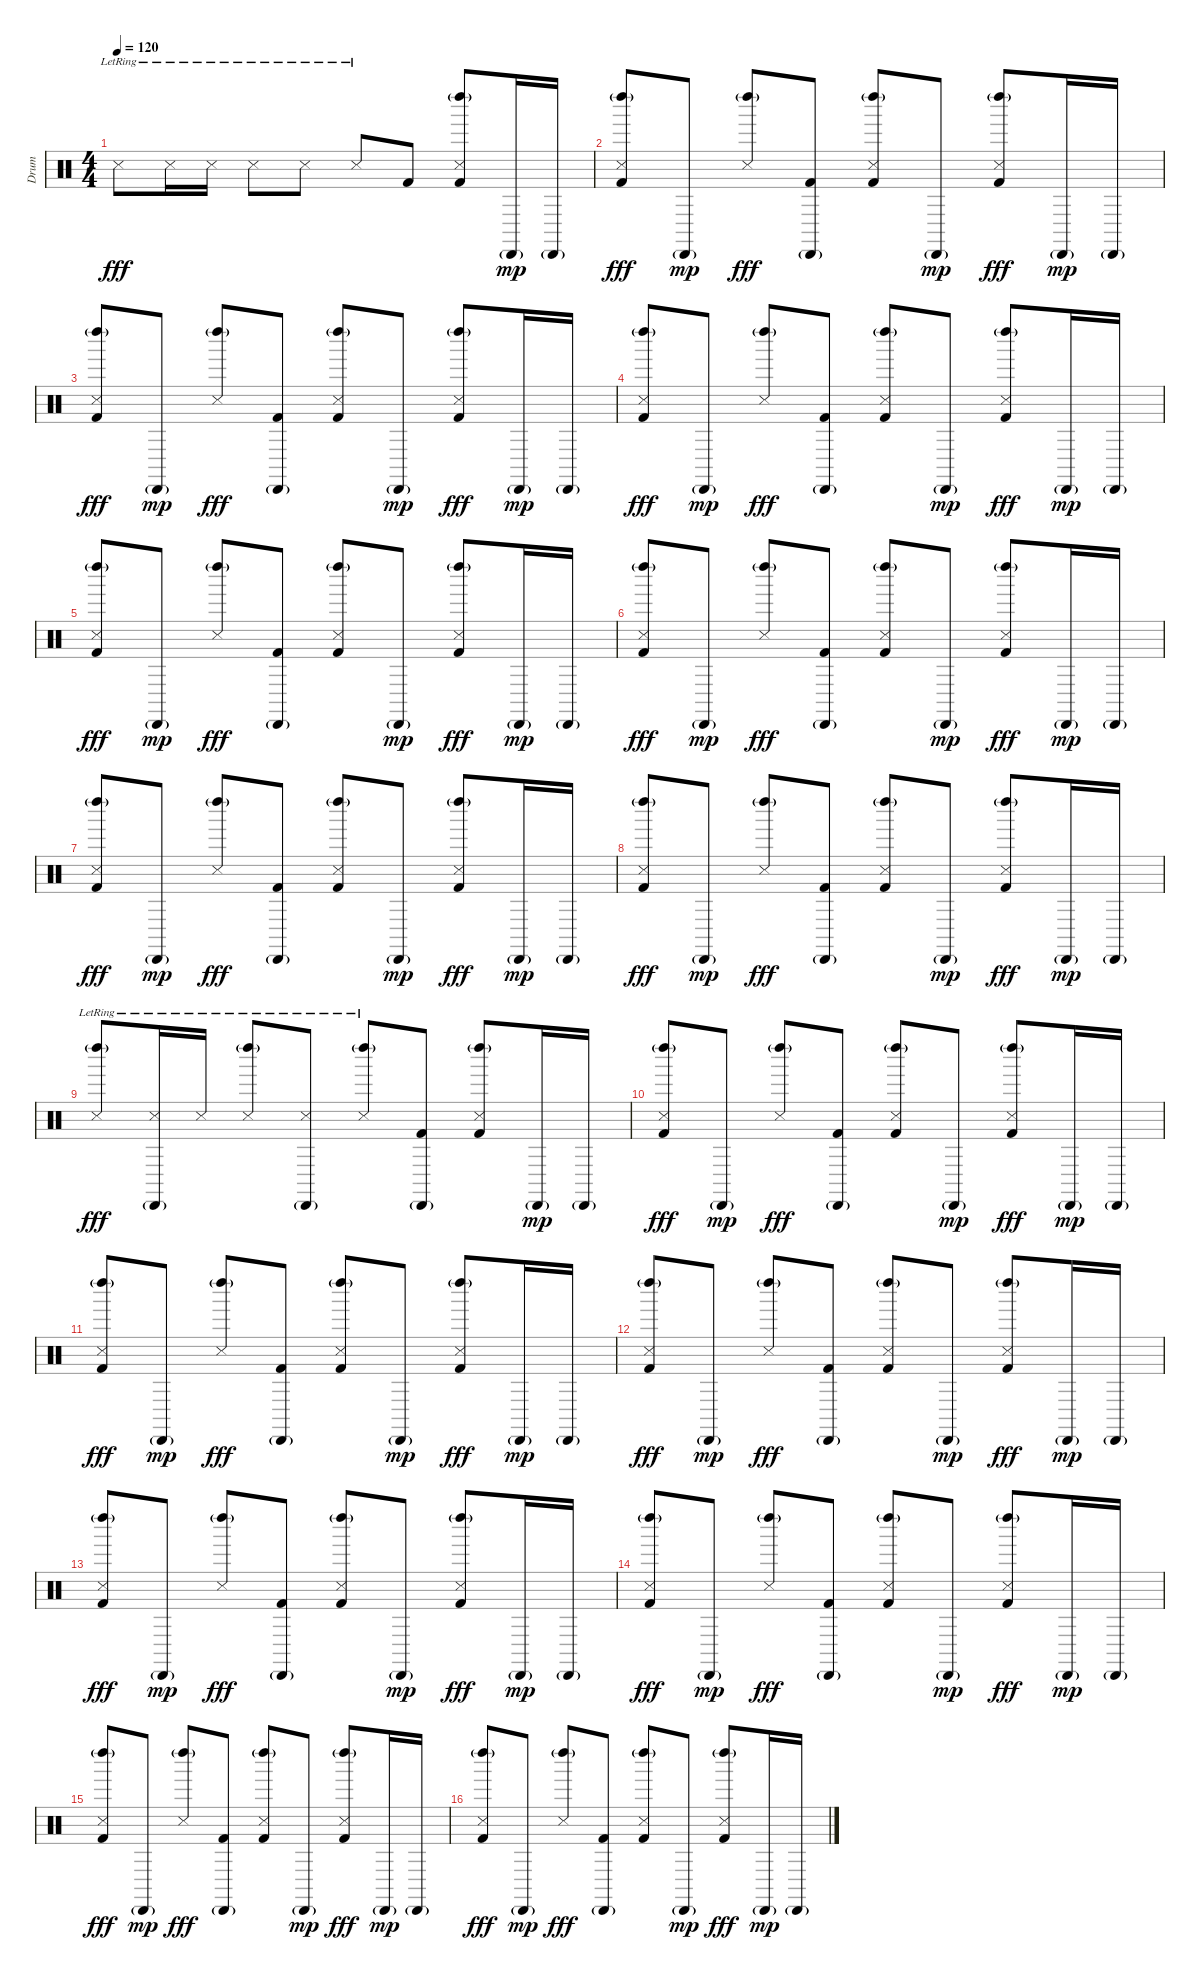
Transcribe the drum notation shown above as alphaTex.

\track ("Drum" "Drum") {instrument percussion}
\staff {score}
\articulation defaults
\ts (4 4)
\tempo 120
\clef neutral
\ks c "Snare (side stick) 3"{lr}.8{dy fff} "Snare (side stick) 3"{lr}.16 "Snare (side stick) 3"{lr}.16 "Snare (side stick) 3"{lr}.8 "Snare (side stick) 3"{lr}.8 "Snare (side stick) 3"{lr}.8 "Kick (hit) 2".8
("Left Maraca (hit)"{g} "Snare (side stick) 3" "Kick (hit) 2").8 "Cabasa (hit)"{g}.16{dy mp} "Cabasa (hit)"{g}.16 |
("Left Maraca (hit)"{g} "Snare (side stick) 3" "Kick (hit) 2").8{dy fff} "Cabasa (hit)"{g}.8{dy mp} ("Left Maraca (hit)"{g} "Snare (side stick) 3").8{dy fff} ("Cabasa (hit)"{g} "Kick (hit) 2").8 ("Left Maraca (hit)"{g} "Snare (side stick) 3" "Kick (hit) 2").8 "Cabasa (hit)"{g}.8{dy mp} ("Left Maraca (hit)"{g} "Snare (side stick) 3" "Kick (hit) 2").8{dy fff} "Cabasa (hit)"{g}.16{dy mp} "Cabasa (hit)"{g}.16 |
("Left Maraca (hit)"{g} "Snare (side stick) 3" "Kick (hit) 2").8{dy fff} "Cabasa (hit)"{g}.8{dy mp} ("Left Maraca (hit)"{g} "Snare (side stick) 3").8{dy fff} ("Cabasa (hit)"{g} "Kick (hit) 2").8 ("Left Maraca (hit)"{g} "Snare (side stick) 3" "Kick (hit) 2").8 "Cabasa (hit)"{g}.8{dy mp} ("Left Maraca (hit)"{g} "Snare (side stick) 3" "Kick (hit) 2").8{dy fff} "Cabasa (hit)"{g}.16{dy mp} "Cabasa (hit)"{g}.16 |
("Left Maraca (hit)"{g} "Snare (side stick) 3" "Kick (hit) 2").8{dy fff} "Cabasa (hit)"{g}.8{dy mp} ("Left Maraca (hit)"{g} "Snare (side stick) 3").8{dy fff} ("Cabasa (hit)"{g} "Kick (hit) 2").8 ("Left Maraca (hit)"{g} "Snare (side stick) 3" "Kick (hit) 2").8 "Cabasa (hit)"{g}.8{dy mp} ("Left Maraca (hit)"{g} "Snare (side stick) 3" "Kick (hit) 2").8{dy fff} "Cabasa (hit)"{g}.16{dy mp} "Cabasa (hit)"{g}.16 |
("Left Maraca (hit)"{g} "Snare (side stick) 3" "Kick (hit) 2").8{dy fff} "Cabasa (hit)"{g}.8{dy mp} ("Left Maraca (hit)"{g} "Snare (side stick) 3").8{dy fff} ("Cabasa (hit)"{g} "Kick (hit) 2").8 ("Left Maraca (hit)"{g} "Snare (side stick) 3" "Kick (hit) 2").8 "Cabasa (hit)"{g}.8{dy mp} ("Left Maraca (hit)"{g} "Snare (side stick) 3" "Kick (hit) 2").8{dy fff} "Cabasa (hit)"{g}.16{dy mp} "Cabasa (hit)"{g}.16 |
("Left Maraca (hit)"{g} "Snare (side stick) 3" "Kick (hit) 2").8{dy fff} "Cabasa (hit)"{g}.8{dy mp} ("Left Maraca (hit)"{g} "Snare (side stick) 3").8{dy fff} ("Cabasa (hit)"{g} "Kick (hit) 2").8 ("Left Maraca (hit)"{g} "Snare (side stick) 3" "Kick (hit) 2").8 "Cabasa (hit)"{g}.8{dy mp} ("Left Maraca (hit)"{g} "Snare (side stick) 3" "Kick (hit) 2").8{dy fff} "Cabasa (hit)"{g}.16{dy mp} "Cabasa (hit)"{g}.16 |
("Left Maraca (hit)"{g} "Snare (side stick) 3" "Kick (hit) 2").8{dy fff} "Cabasa (hit)"{g}.8{dy mp} ("Left Maraca (hit)"{g} "Snare (side stick) 3").8{dy fff} ("Cabasa (hit)"{g} "Kick (hit) 2").8 ("Left Maraca (hit)"{g} "Snare (side stick) 3" "Kick (hit) 2").8 "Cabasa (hit)"{g}.8{dy mp} ("Left Maraca (hit)"{g} "Snare (side stick) 3" "Kick (hit) 2").8{dy fff} "Cabasa (hit)"{g}.16{dy mp} "Cabasa (hit)"{g}.16 |
("Left Maraca (hit)"{g} "Snare (side stick) 3" "Kick (hit) 2").8{dy fff} "Cabasa (hit)"{g}.8{dy mp} ("Left Maraca (hit)"{g} "Snare (side stick) 3").8{dy fff} ("Cabasa (hit)"{g} "Kick (hit) 2").8 ("Left Maraca (hit)"{g} "Snare (side stick) 3" "Kick (hit) 2").8 "Cabasa (hit)"{g}.8{dy mp} ("Left Maraca (hit)"{g} "Snare (side stick) 3" "Kick (hit) 2").8{dy fff} "Cabasa (hit)"{g}.16{dy mp} "Cabasa (hit)"{g}.16 |
("Left Maraca (hit)"{g} "Snare (side stick) 3"{lr}).8{dy fff} ("Cabasa (hit)"{g} "Snare (side stick) 3"{lr}).16 "Snare (side stick) 3"{lr}.16 ("Left Maraca (hit)"{g} "Snare (side stick) 3"{lr}).8 ("Cabasa (hit)"{g} "Snare (side stick) 3"{lr}).8 ("Left Maraca (hit)"{g} "Snare (side stick) 3"{lr}).8 ("Cabasa (hit)"{g} "Kick (hit) 2").8 ("Left Maraca (hit)"{g} "Snare (side stick) 3" "Kick (hit) 2").8 "Cabasa (hit)"{g}.16{dy mp} "Cabasa (hit)"{g}.16 |
("Left Maraca (hit)"{g} "Snare (side stick) 3" "Kick (hit) 2").8{dy fff} "Cabasa (hit)"{g}.8{dy mp} ("Left Maraca (hit)"{g} "Snare (side stick) 3").8{dy fff} ("Cabasa (hit)"{g} "Kick (hit) 2").8 ("Left Maraca (hit)"{g} "Snare (side stick) 3" "Kick (hit) 2").8 "Cabasa (hit)"{g}.8{dy mp} ("Left Maraca (hit)"{g} "Snare (side stick) 3" "Kick (hit) 2").8{dy fff} "Cabasa (hit)"{g}.16{dy mp} "Cabasa (hit)"{g}.16 |
("Left Maraca (hit)"{g} "Snare (side stick) 3" "Kick (hit) 2").8{dy fff} "Cabasa (hit)"{g}.8{dy mp} ("Left Maraca (hit)"{g} "Snare (side stick) 3").8{dy fff} ("Cabasa (hit)"{g} "Kick (hit) 2").8 ("Left Maraca (hit)"{g} "Snare (side stick) 3" "Kick (hit) 2").8 "Cabasa (hit)"{g}.8{dy mp} ("Left Maraca (hit)"{g} "Snare (side stick) 3" "Kick (hit) 2").8{dy fff} "Cabasa (hit)"{g}.16{dy mp} "Cabasa (hit)"{g}.16 |
("Left Maraca (hit)"{g} "Snare (side stick) 3" "Kick (hit) 2").8{dy fff} "Cabasa (hit)"{g}.8{dy mp} ("Left Maraca (hit)"{g} "Snare (side stick) 3").8{dy fff} ("Cabasa (hit)"{g} "Kick (hit) 2").8 ("Left Maraca (hit)"{g} "Snare (side stick) 3" "Kick (hit) 2").8 "Cabasa (hit)"{g}.8{dy mp} ("Left Maraca (hit)"{g} "Snare (side stick) 3" "Kick (hit) 2").8{dy fff} "Cabasa (hit)"{g}.16{dy mp} "Cabasa (hit)"{g}.16 |
("Left Maraca (hit)"{g} "Snare (side stick) 3" "Kick (hit) 2").8{dy fff} "Cabasa (hit)"{g}.8{dy mp} ("Left Maraca (hit)"{g} "Snare (side stick) 3").8{dy fff} ("Cabasa (hit)"{g} "Kick (hit) 2").8 ("Left Maraca (hit)"{g} "Snare (side stick) 3" "Kick (hit) 2").8 "Cabasa (hit)"{g}.8{dy mp} ("Left Maraca (hit)"{g} "Snare (side stick) 3" "Kick (hit) 2").8{dy fff} "Cabasa (hit)"{g}.16{dy mp} "Cabasa (hit)"{g}.16 |
("Left Maraca (hit)"{g} "Snare (side stick) 3" "Kick (hit) 2").8{dy fff} "Cabasa (hit)"{g}.8{dy mp} ("Left Maraca (hit)"{g} "Snare (side stick) 3").8{dy fff} ("Cabasa (hit)"{g} "Kick (hit) 2").8 ("Left Maraca (hit)"{g} "Snare (side stick) 3" "Kick (hit) 2").8 "Cabasa (hit)"{g}.8{dy mp} ("Left Maraca (hit)"{g} "Snare (side stick) 3" "Kick (hit) 2").8{dy fff} "Cabasa (hit)"{g}.16{dy mp} "Cabasa (hit)"{g}.16 |
("Left Maraca (hit)"{g} "Snare (side stick) 3" "Kick (hit) 2").8{dy fff} "Cabasa (hit)"{g}.8{dy mp} ("Left Maraca (hit)"{g} "Snare (side stick) 3").8{dy fff} ("Cabasa (hit)"{g} "Kick (hit) 2").8 ("Left Maraca (hit)"{g} "Snare (side stick) 3" "Kick (hit) 2").8 "Cabasa (hit)"{g}.8{dy mp} ("Left Maraca (hit)"{g} "Snare (side stick) 3" "Kick (hit) 2").8{dy fff} "Cabasa (hit)"{g}.16{dy mp} "Cabasa (hit)"{g}.16 |
("Left Maraca (hit)"{g} "Snare (side stick) 3" "Kick (hit) 2").8{dy fff} "Cabasa (hit)"{g}.8{dy mp} ("Left Maraca (hit)"{g} "Snare (side stick) 3").8{dy fff} ("Cabasa (hit)"{g} "Kick (hit) 2").8 ("Left Maraca (hit)"{g} "Snare (side stick) 3" "Kick (hit) 2").8 "Cabasa (hit)"{g}.8{dy mp} ("Left Maraca (hit)"{g} "Snare (side stick) 3" "Kick (hit) 2").8{dy fff} "Cabasa (hit)"{g}.16{dy mp} "Cabasa (hit)"{g}.16
